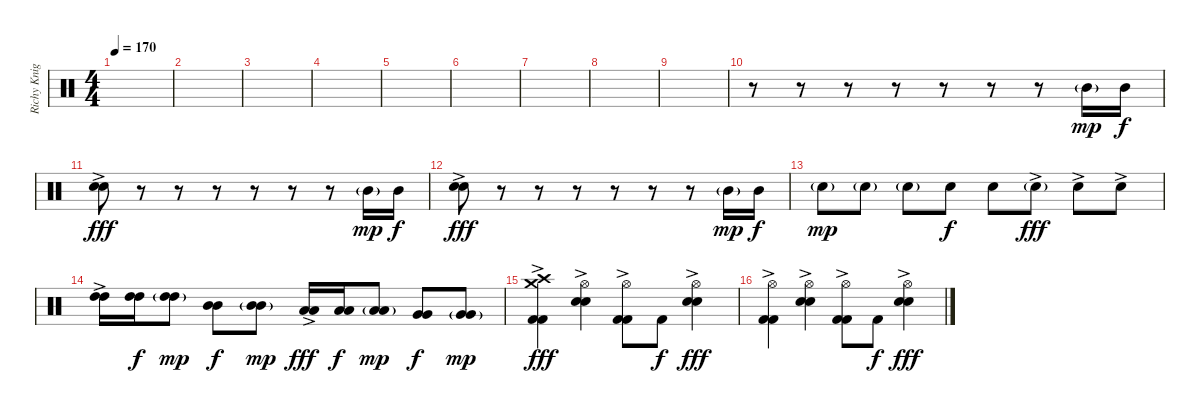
\track ("Richy Knight (Drums)" "Richy Knig") {instrument percussion}
\staff {score}
\articulation defaults
\ts (4 4)
\tempo 170
\clef neutral
\ks c
|
|
|
|
|
|
|
|
|
r.8 r.8 r.8 r.8 r.8 r.8 r.8 "Mid Tom (hit)"{g}.16{dy mp} "Mid Tom (hit)".16{dy f} |
("Electric Snare (hit)"{ac} "Electric Snare (hit)"{ac}).8{dy fff} r.8 r.8 r.8 r.8 r.8 r.8 "Mid Tom (hit)"{g}.16{dy mp} "Mid Tom (hit)".16{dy f} |
("Electric Snare (hit)"{ac} "Electric Snare (hit)"{ac}).8{dy fff} r.8 r.8 r.8 r.8 r.8 r.8 "Mid Tom (hit)"{g}.16{dy mp} "Mid Tom (hit)".16{dy f} |
"Electric Snare (hit)"{g}.8{dy mp} "Electric Snare (hit)"{g}.8 "Electric Snare (hit)"{g}.8 "Electric Snare (hit)".8{dy f} "Electric Snare (hit)".8 "Electric Snare (hit)"{g ac}.8{dy fff} "Electric Snare (hit)"{ac}.8 "Electric Snare (hit)"{ac}.8 |
("High Tom (hit)"{ac} "High Tom (hit)"{ac}).16 ("High Tom (hit)" "High Tom (hit)").16{dy f} ("High Tom (hit)"{g} "High Tom (hit)"{g}).8{dy mp} ("Mid Tom (hit)" "Mid Tom (hit)").8{dy f} ("Mid Tom (hit)"{g} "Mid Tom (hit)"{g}).8{dy mp} ("Low Tom (hit)"{ac} "Low Tom (hit)"{ac}).16{dy fff} ("Low Tom (hit)" "Low Tom (hit)").16{dy f} ("Low Tom (hit)"{g} "Low Tom (hit)"{g}).8{dy mp} ("Very Low Tom (hit)" "Very Low Tom (hit)").8{dy f} ("Very Low Tom (hit)"{g} "Very Low Tom (hit)"{g}).8{dy mp} |
("Crash high (hit)"{ac} "Crash medium (hit)"{ac} "Kick (hit) 2"{ac} "Kick (hit) 2"{ac}).4{dy fff} ("Hi-Hat (open)"{ac} "Electric Snare (hit)"{ac} "Electric Snare (hit)"{ac}).4 ("Hi-Hat (open)"{ac} "Kick (hit) 2"{ac} "Kick (hit) 2"{ac}).8 "Kick (hit) 2".8{dy f} ("Hi-Hat (open)"{ac} "Electric Snare (hit)"{ac} "Electric Snare (hit)"{ac}).4{dy fff} |
("Hi-Hat (open)"{ac} "Kick (hit) 2"{ac} "Kick (hit) 2"{ac}).4 ("Hi-Hat (open)"{ac} "Electric Snare (hit)"{ac} "Electric Snare (hit)"{ac}).4 ("Hi-Hat (open)"{ac} "Kick (hit) 2"{ac} "Kick (hit) 2"{ac}).8 "Kick (hit) 2".8{dy f} ("Hi-Hat (open)"{ac} "Electric Snare (hit)"{ac} "Electric Snare (hit)"{ac}).4{dy fff}
